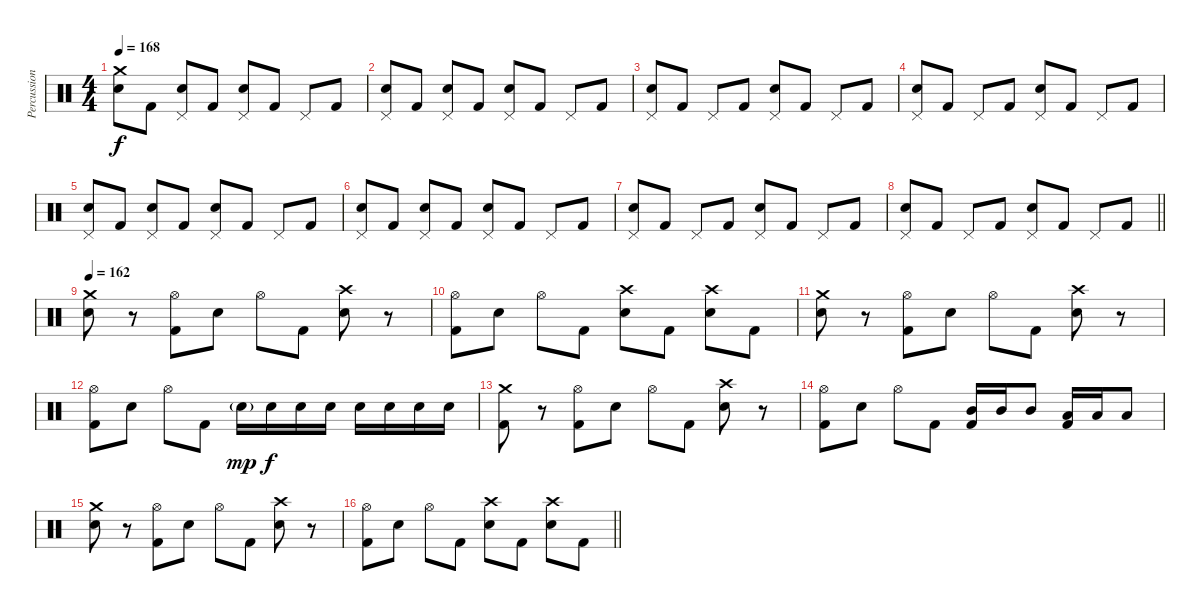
\track ("Percussion" "Percussion") {instrument percussion}
\staff {score}
\articulation defaults
\ts (4 4)
\section ("" "")
\tempo 168
\clef neutral
\ks c
("Crash medium (hit)" "Electric Snare (hit)").8{dy f} "Kick (hit) 2".8 ("Pedal Hi-Hat (hit)" "Electric Snare (hit)").8 "Kick (hit) 2".8 ("Pedal Hi-Hat (hit)" "Electric Snare (hit)").8 "Kick (hit) 2".8 "Pedal Hi-Hat (hit)".8 "Kick (hit) 2".8 |
("Pedal Hi-Hat (hit)" "Electric Snare (hit)").8 "Kick (hit) 2".8 ("Pedal Hi-Hat (hit)" "Electric Snare (hit)").8 "Kick (hit) 2".8 ("Pedal Hi-Hat (hit)" "Electric Snare (hit)").8 "Kick (hit) 2".8 "Pedal Hi-Hat (hit)".8 "Kick (hit) 2".8 |
("Pedal Hi-Hat (hit)" "Electric Snare (hit)").8 "Kick (hit) 2".8 "Pedal Hi-Hat (hit)".8 "Kick (hit) 2".8 ("Pedal Hi-Hat (hit)" "Electric Snare (hit)").8 "Kick (hit) 2".8 "Pedal Hi-Hat (hit)".8 "Kick (hit) 2".8 |
("Pedal Hi-Hat (hit)" "Electric Snare (hit)").8 "Kick (hit) 2".8 "Pedal Hi-Hat (hit)".8 "Kick (hit) 2".8 ("Pedal Hi-Hat (hit)" "Electric Snare (hit)").8 "Kick (hit) 2".8 "Pedal Hi-Hat (hit)".8 "Kick (hit) 2".8 |
("Pedal Hi-Hat (hit)" "Electric Snare (hit)").8 "Kick (hit) 2".8 ("Pedal Hi-Hat (hit)" "Electric Snare (hit)").8 "Kick (hit) 2".8 ("Pedal Hi-Hat (hit)" "Electric Snare (hit)").8 "Kick (hit) 2".8 "Pedal Hi-Hat (hit)".8 "Kick (hit) 2".8 |
("Pedal Hi-Hat (hit)" "Electric Snare (hit)").8 "Kick (hit) 2".8 ("Pedal Hi-Hat (hit)" "Electric Snare (hit)").8 "Kick (hit) 2".8 ("Pedal Hi-Hat (hit)" "Electric Snare (hit)").8 "Kick (hit) 2".8 "Pedal Hi-Hat (hit)".8 "Kick (hit) 2".8 |
("Pedal Hi-Hat (hit)" "Electric Snare (hit)").8 "Kick (hit) 2".8 "Pedal Hi-Hat (hit)".8 "Kick (hit) 2".8 ("Pedal Hi-Hat (hit)" "Electric Snare (hit)").8 "Kick (hit) 2".8 "Pedal Hi-Hat (hit)".8 "Kick (hit) 2".8 |
\barLineRight lightlight
("Pedal Hi-Hat (hit)" "Electric Snare (hit)").8 "Kick (hit) 2".8 "Pedal Hi-Hat (hit)".8 "Kick (hit) 2".8 ("Pedal Hi-Hat (hit)" "Electric Snare (hit)").8 "Kick (hit) 2".8 "Pedal Hi-Hat (hit)".8 "Kick (hit) 2".8 |
\section ("" "")
\tempo 162
("Crash medium (hit)" "Electric Snare (hit)").8 r.8 ("Hi-Hat (open)" "Kick (hit) 2").8 "Electric Snare (hit)".8 "Hi-Hat (open)".8 "Kick (hit) 2".8 ("Crash high (hit)" "Electric Snare (hit)").8 r.8 |
("Hi-Hat (open)" "Kick (hit) 2").8 "Electric Snare (hit)".8 "Hi-Hat (open)".8 "Kick (hit) 2".8 ("Crash high (hit)" "Electric Snare (hit)").8 "Kick (hit) 2".8 ("Crash high (hit)" "Electric Snare (hit)").8 "Kick (hit) 2".8 |
("Crash medium (hit)" "Electric Snare (hit)").8 r.8 ("Hi-Hat (open)" "Kick (hit) 2").8 "Electric Snare (hit)".8 "Hi-Hat (open)".8 "Kick (hit) 2".8 ("Crash high (hit)" "Electric Snare (hit)").8 r.8 |
("Hi-Hat (open)" "Kick (hit) 2").8 "Electric Snare (hit)".8 "Hi-Hat (open)".8 "Kick (hit) 2".8 "Electric Snare (hit)"{g}.16{dy mp} "Electric Snare (hit)".16{dy f} "Electric Snare (hit)".16 "Electric Snare (hit)".16 "Electric Snare (hit)".16 "Electric Snare (hit)".16 "Electric Snare (hit)".16 "Electric Snare (hit)".16 |
("Crash medium (hit)" "Kick (hit) 2").8 r.8 ("Hi-Hat (open)" "Kick (hit) 2").8 "Electric Snare (hit)".8 "Hi-Hat (open)".8 "Kick (hit) 2".8 ("Crash high (hit)" "Electric Snare (hit)").8 r.8 |
("Hi-Hat (open)" "Kick (hit) 2").8 "Electric Snare (hit)".8 "Hi-Hat (open)".8 "Kick (hit) 2".8 ("Mid Tom (hit)" "Kick (hit) 2").16 "Mid Tom (hit)".16 "Mid Tom (hit)".8 ("Low Tom (hit)" "Kick (hit) 2").16 "Low Tom (hit)".16 "Low Tom (hit)".8 |
("Crash medium (hit)" "Electric Snare (hit)").8 r.8 ("Hi-Hat (open)" "Kick (hit) 2").8 "Electric Snare (hit)".8 "Hi-Hat (open)".8 "Kick (hit) 2".8 ("Crash high (hit)" "Electric Snare (hit)").8 r.8 |
\barLineRight lightlight
("Hi-Hat (open)" "Kick (hit) 2").8 "Electric Snare (hit)".8 "Hi-Hat (open)".8 "Kick (hit) 2".8 ("Crash high (hit)" "Electric Snare (hit)").8 "Kick (hit) 2".8 ("Crash high (hit)" "Electric Snare (hit)").8 "Kick (hit) 2".8
